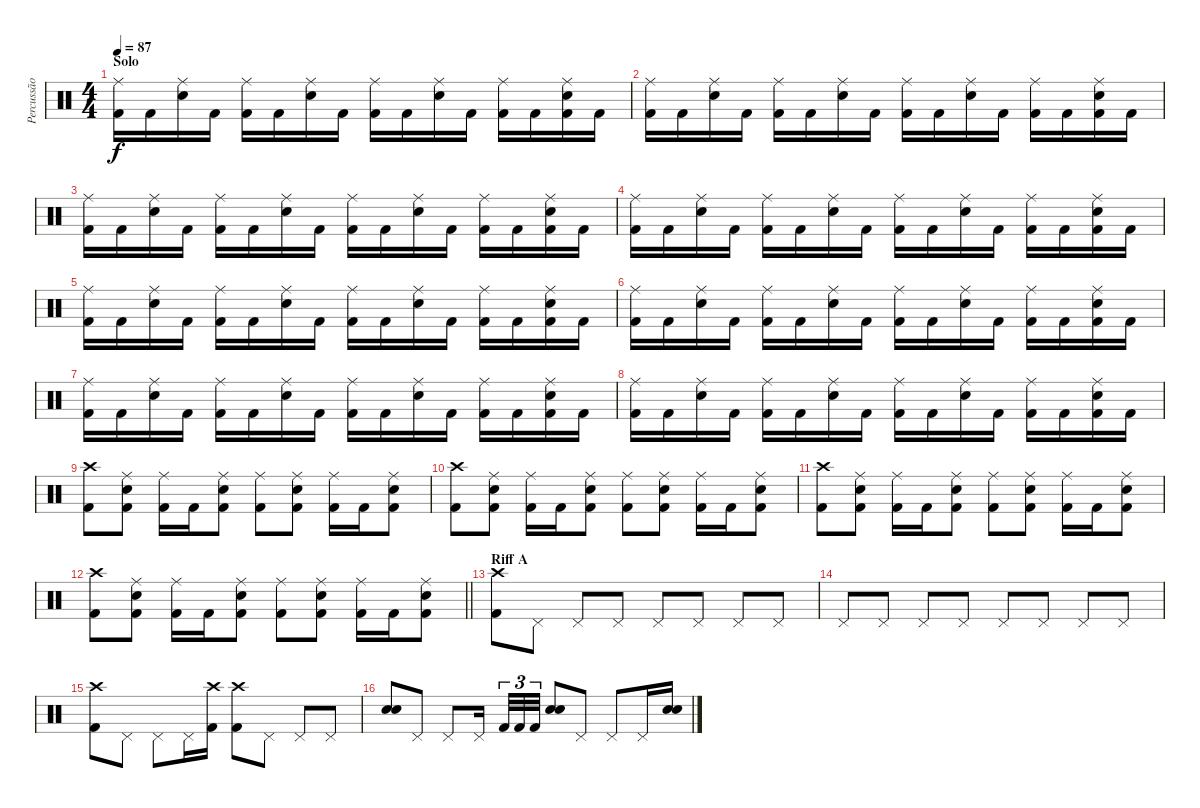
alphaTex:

\track ("Percussão" "Percussão") {instrument percussion}
\staff {score}
\articulation defaults
\ts (4 4)
\section ("" "Solo")
\tempo 87
\clef neutral
\ks c
("Ride (middle)" "Kick (hit) 2").16{dy f} "Kick (hit) 2".16 ("Ride (middle)" "Electric Snare (hit)").16 "Kick (hit) 2".16 ("Ride (middle)" "Kick (hit) 2").16 "Kick (hit) 2".16 ("Ride (middle)" "Electric Snare (hit)").16 "Kick (hit) 2".16 ("Ride (middle)" "Kick (hit) 2").16 "Kick (hit) 2".16 ("Ride (middle)" "Electric Snare (hit)").16 "Kick (hit) 2".16 ("Ride (middle)" "Kick (hit) 2").16 "Kick (hit) 2".16 ("Ride (middle)" "Electric Snare (hit)" "Kick (hit) 2").16 "Kick (hit) 2".16 |
("Ride (middle)" "Kick (hit) 2").16 "Kick (hit) 2".16 ("Ride (middle)" "Electric Snare (hit)").16 "Kick (hit) 2".16 ("Ride (middle)" "Kick (hit) 2").16 "Kick (hit) 2".16 ("Ride (middle)" "Electric Snare (hit)").16 "Kick (hit) 2".16 ("Ride (middle)" "Kick (hit) 2").16 "Kick (hit) 2".16 ("Ride (middle)" "Electric Snare (hit)").16 "Kick (hit) 2".16 ("Ride (middle)" "Kick (hit) 2").16 "Kick (hit) 2".16 ("Ride (middle)" "Electric Snare (hit)" "Kick (hit) 2").16 "Kick (hit) 2".16 |
("Ride (middle)" "Kick (hit) 2").16 "Kick (hit) 2".16 ("Ride (middle)" "Electric Snare (hit)").16 "Kick (hit) 2".16 ("Ride (middle)" "Kick (hit) 2").16 "Kick (hit) 2".16 ("Ride (middle)" "Electric Snare (hit)").16 "Kick (hit) 2".16 ("Ride (middle)" "Kick (hit) 2").16 "Kick (hit) 2".16 ("Ride (middle)" "Electric Snare (hit)").16 "Kick (hit) 2".16 ("Ride (middle)" "Kick (hit) 2").16 "Kick (hit) 2".16 ("Ride (middle)" "Electric Snare (hit)" "Kick (hit) 2").16 "Kick (hit) 2".16 |
("Ride (middle)" "Kick (hit) 2").16 "Kick (hit) 2".16 ("Ride (middle)" "Electric Snare (hit)").16 "Kick (hit) 2".16 ("Ride (middle)" "Kick (hit) 2").16 "Kick (hit) 2".16 ("Ride (middle)" "Electric Snare (hit)").16 "Kick (hit) 2".16 ("Ride (middle)" "Kick (hit) 2").16 "Kick (hit) 2".16 ("Ride (middle)" "Electric Snare (hit)").16 "Kick (hit) 2".16 ("Ride (middle)" "Kick (hit) 2").16 "Kick (hit) 2".16 ("Ride (middle)" "Electric Snare (hit)" "Kick (hit) 2").16 "Kick (hit) 2".16 |
("Ride (middle)" "Kick (hit) 2").16 "Kick (hit) 2".16 ("Ride (middle)" "Electric Snare (hit)").16 "Kick (hit) 2".16 ("Ride (middle)" "Kick (hit) 2").16 "Kick (hit) 2".16 ("Ride (middle)" "Electric Snare (hit)").16 "Kick (hit) 2".16 ("Ride (middle)" "Kick (hit) 2").16 "Kick (hit) 2".16 ("Ride (middle)" "Electric Snare (hit)").16 "Kick (hit) 2".16 ("Ride (middle)" "Kick (hit) 2").16 "Kick (hit) 2".16 ("Ride (middle)" "Electric Snare (hit)" "Kick (hit) 2").16 "Kick (hit) 2".16 |
("Ride (middle)" "Kick (hit) 2").16 "Kick (hit) 2".16 ("Ride (middle)" "Electric Snare (hit)").16 "Kick (hit) 2".16 ("Ride (middle)" "Kick (hit) 2").16 "Kick (hit) 2".16 ("Ride (middle)" "Electric Snare (hit)").16 "Kick (hit) 2".16 ("Ride (middle)" "Kick (hit) 2").16 "Kick (hit) 2".16 ("Ride (middle)" "Electric Snare (hit)").16 "Kick (hit) 2".16 ("Ride (middle)" "Kick (hit) 2").16 "Kick (hit) 2".16 ("Ride (middle)" "Electric Snare (hit)" "Kick (hit) 2").16 "Kick (hit) 2".16 |
("Ride (middle)" "Kick (hit) 2").16 "Kick (hit) 2".16 ("Ride (middle)" "Electric Snare (hit)").16 "Kick (hit) 2".16 ("Ride (middle)" "Kick (hit) 2").16 "Kick (hit) 2".16 ("Ride (middle)" "Electric Snare (hit)").16 "Kick (hit) 2".16 ("Ride (middle)" "Kick (hit) 2").16 "Kick (hit) 2".16 ("Ride (middle)" "Electric Snare (hit)").16 "Kick (hit) 2".16 ("Ride (middle)" "Kick (hit) 2").16 "Kick (hit) 2".16 ("Ride (middle)" "Electric Snare (hit)" "Kick (hit) 2").16 "Kick (hit) 2".16 |
("Ride (middle)" "Kick (hit) 2").16 "Kick (hit) 2".16 ("Ride (middle)" "Electric Snare (hit)").16 "Kick (hit) 2".16 ("Ride (middle)" "Kick (hit) 2").16 "Kick (hit) 2".16 ("Ride (middle)" "Electric Snare (hit)").16 "Kick (hit) 2".16 ("Ride (middle)" "Kick (hit) 2").16 "Kick (hit) 2".16 ("Ride (middle)" "Electric Snare (hit)").16 "Kick (hit) 2".16 ("Ride (middle)" "Kick (hit) 2").16 "Kick (hit) 2".16 ("Ride (middle)" "Electric Snare (hit)" "Kick (hit) 2").16 "Kick (hit) 2".16 |
("Crash high (hit)" "Kick (hit) 2").8 ("Ride (middle)" "Electric Snare (hit)" "Kick (hit) 2").8 ("Ride (middle)" "Kick (hit) 2").16 "Kick (hit) 2".16 ("Ride (middle)" "Electric Snare (hit)" "Kick (hit) 2").8 ("Ride (middle)" "Kick (hit) 2").8 ("Ride (middle)" "Electric Snare (hit)" "Kick (hit) 2").8 ("Ride (middle)" "Kick (hit) 2").16 "Kick (hit) 2".16 ("Ride (middle)" "Electric Snare (hit)" "Kick (hit) 2").8 |
("Crash high (hit)" "Kick (hit) 2").8 ("Ride (middle)" "Electric Snare (hit)" "Kick (hit) 2").8 ("Ride (middle)" "Kick (hit) 2").16 "Kick (hit) 2".16 ("Ride (middle)" "Electric Snare (hit)" "Kick (hit) 2").8 ("Ride (middle)" "Kick (hit) 2").8 ("Ride (middle)" "Electric Snare (hit)" "Kick (hit) 2").8 ("Ride (middle)" "Kick (hit) 2").16 "Kick (hit) 2".16 ("Ride (middle)" "Electric Snare (hit)" "Kick (hit) 2").8 |
("Crash high (hit)" "Kick (hit) 2").8 ("Ride (middle)" "Electric Snare (hit)" "Kick (hit) 2").8 ("Ride (middle)" "Kick (hit) 2").16 "Kick (hit) 2".16 ("Ride (middle)" "Electric Snare (hit)" "Kick (hit) 2").8 ("Ride (middle)" "Kick (hit) 2").8 ("Ride (middle)" "Electric Snare (hit)" "Kick (hit) 2").8 ("Ride (middle)" "Kick (hit) 2").16 "Kick (hit) 2".16 ("Ride (middle)" "Electric Snare (hit)" "Kick (hit) 2").8 |
\barLineRight lightlight
("Crash high (hit)" "Kick (hit) 2").8 ("Ride (middle)" "Electric Snare (hit)" "Kick (hit) 2").8 ("Ride (middle)" "Kick (hit) 2").16 "Kick (hit) 2".16 ("Ride (middle)" "Electric Snare (hit)" "Kick (hit) 2").8 ("Ride (middle)" "Kick (hit) 2").8 ("Ride (middle)" "Electric Snare (hit)" "Kick (hit) 2").8 ("Ride (middle)" "Kick (hit) 2").16 "Kick (hit) 2".16 ("Ride (middle)" "Electric Snare (hit)" "Kick (hit) 2").8 |
\section ("" "Riff A")
("Crash high (hit)" "Kick (hit) 2").8 "Pedal Hi-Hat (hit)".8 "Pedal Hi-Hat (hit)".8 "Pedal Hi-Hat (hit)".8 "Pedal Hi-Hat (hit)".8 "Pedal Hi-Hat (hit)".8 "Pedal Hi-Hat (hit)".8 "Pedal Hi-Hat (hit)".8 |
"Pedal Hi-Hat (hit)".8 "Pedal Hi-Hat (hit)".8 "Pedal Hi-Hat (hit)".8 "Pedal Hi-Hat (hit)".8 "Pedal Hi-Hat (hit)".8 "Pedal Hi-Hat (hit)".8 "Pedal Hi-Hat (hit)".8 "Pedal Hi-Hat (hit)".8 |
("Crash high (hit)" "Kick (hit) 2").8 "Pedal Hi-Hat (hit)".8 "Pedal Hi-Hat (hit)".8 "Pedal Hi-Hat (hit)".16 ("Crash high (hit)" "Kick (hit) 2").16 ("Crash high (hit)" "Kick (hit) 2").8 "Pedal Hi-Hat (hit)".8 "Pedal Hi-Hat (hit)".8 "Pedal Hi-Hat (hit)".8 |
("Electric Snare (hit)" "Electric Snare (hit)").8 "Pedal Hi-Hat (hit)".8 "Pedal Hi-Hat (hit)".8 "Pedal Hi-Hat (hit)".16{beam splitsecondary} "Kick (hit) 2".32{tu (3 2)} "Kick (hit) 2".32{tu (3 2)} "Kick (hit) 2".32{tu (3 2)} ("Electric Snare (hit)" "Electric Snare (hit)").8 "Pedal Hi-Hat (hit)".8 "Pedal Hi-Hat (hit)".8 "Pedal Hi-Hat (hit)".16 ("Electric Snare (hit)" "Electric Snare (hit)").16
